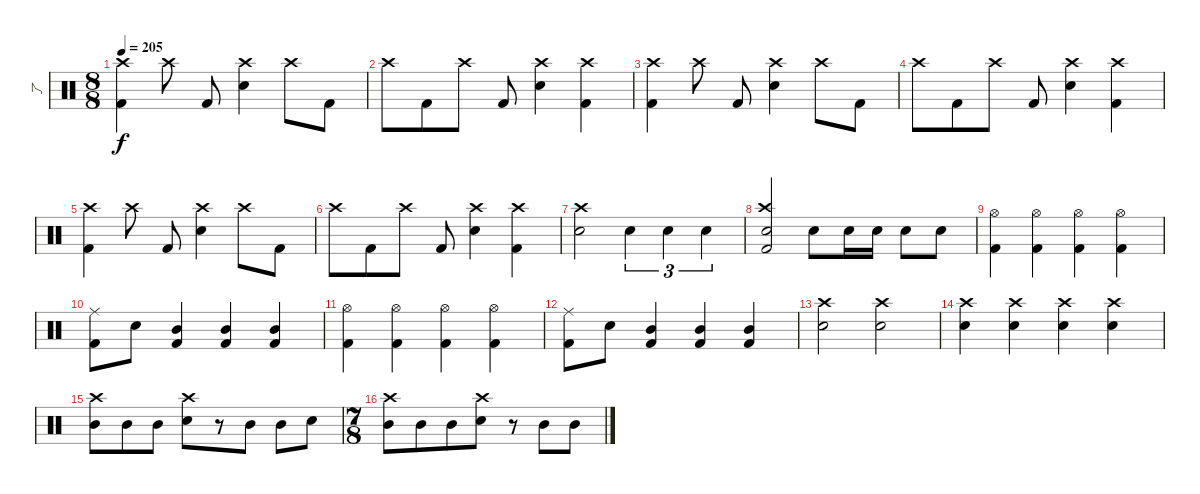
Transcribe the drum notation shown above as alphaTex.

\track ("了" "了") {instrument percussion}
\staff {score}
\articulation defaults
\ts (8 8)
\tempo 205
\clef neutral
\ks c
("Kick (hit) 2" "Crash high (hit)").4{dy f} "Crash high (hit)".8 "Kick (hit) 2".8 ("Snare (hit) 2" "Crash high (hit)").4 "Crash high (hit)".8 "Kick (hit) 2".8 |
"Crash high (hit)".8 "Kick (hit) 2".8 "Crash high (hit)".8 "Kick (hit) 2".8 ("Snare (hit) 2" "Crash high (hit)").4 ("Kick (hit) 2" "Crash high (hit)").4 |
("Kick (hit) 2" "Crash high (hit)").4 "Crash high (hit)".8 "Kick (hit) 2".8 ("Snare (hit) 2" "Crash high (hit)").4 "Crash high (hit)".8 "Kick (hit) 2".8 |
"Crash high (hit)".8 "Kick (hit) 2".8 "Crash high (hit)".8 "Kick (hit) 2".8 ("Snare (hit) 2" "Crash high (hit)").4 ("Kick (hit) 2" "Crash high (hit)").4 |
("Kick (hit) 2" "Crash high (hit)").4 "Crash high (hit)".8 "Kick (hit) 2".8 ("Snare (hit) 2" "Crash high (hit)").4 "Crash high (hit)".8 "Kick (hit) 2".8 |
"Crash high (hit)".8 "Kick (hit) 2".8 "Crash high (hit)".8 "Kick (hit) 2".8 ("Snare (hit) 2" "Crash high (hit)").4 ("Kick (hit) 2" "Crash high (hit)").4 |
("Snare (hit) 2" "Crash high (hit)").2 "Snare (hit) 2".4{tu (3 2)} "Snare (hit) 2".4{tu (3 2)} "Snare (hit) 2".4{tu (3 2)} |
("Crash high (hit)" "Kick (hit) 2" "Snare (hit) 2").2 "Snare (hit) 2".8 "Snare (hit) 2".16 "Snare (hit) 2".16 "Snare (hit) 2".8 "Snare (hit) 2".8 |
("Hi-Hat (open)" "Kick (hit) 2").4 ("Hi-Hat (open)" "Kick (hit) 2").4 ("Hi-Hat (open)" "Kick (hit) 2").4 ("Hi-Hat (open)" "Kick (hit) 2").4 |
("Ride (middle)" "Kick (hit) 2").8 "Electric Snare (hit)".8 ("Kick (hit) 2" "Mid Tom (hit)").4 ("Kick (hit) 2" "Mid Tom (hit)").4 ("Kick (hit) 2" "Mid Tom (hit)").4 |
("Hi-Hat (open)" "Kick (hit) 2").4 ("Hi-Hat (open)" "Kick (hit) 2").4 ("Hi-Hat (open)" "Kick (hit) 2").4 ("Hi-Hat (open)" "Kick (hit) 2").4 |
("Ride (middle)" "Kick (hit) 2").8 "Electric Snare (hit)".8 ("Kick (hit) 2" "Mid Tom (hit)").4 ("Kick (hit) 2" "Mid Tom (hit)").4 ("Kick (hit) 2" "Mid Tom (hit)").4 |
("Crash high (hit)" "Snare (hit) 2").2 ("Crash high (hit)" "Snare (hit) 2").2 |
("Crash high (hit)" "Snare (hit) 2").4 ("Crash high (hit)" "Snare (hit) 2").4 ("Crash high (hit)" "Snare (hit) 2").4 ("Crash high (hit)" "Snare (hit) 2").4 |
("Crash high (hit)" "Mid Tom (hit)").8 "Mid Tom (hit)".8 "Mid Tom (hit)".8 ("Crash high (hit)" "Snare (hit) 2").8 r.8 "Mid Tom (hit)".8 "Mid Tom (hit)".8 "Snare (hit) 2".8 |
\ts (7 8)
("Crash high (hit)" "Mid Tom (hit)").8 "Mid Tom (hit)".8 "Mid Tom (hit)".8 ("Crash high (hit)" "Snare (hit) 2").8 r.8 "Mid Tom (hit)".8 "Mid Tom (hit)".8
